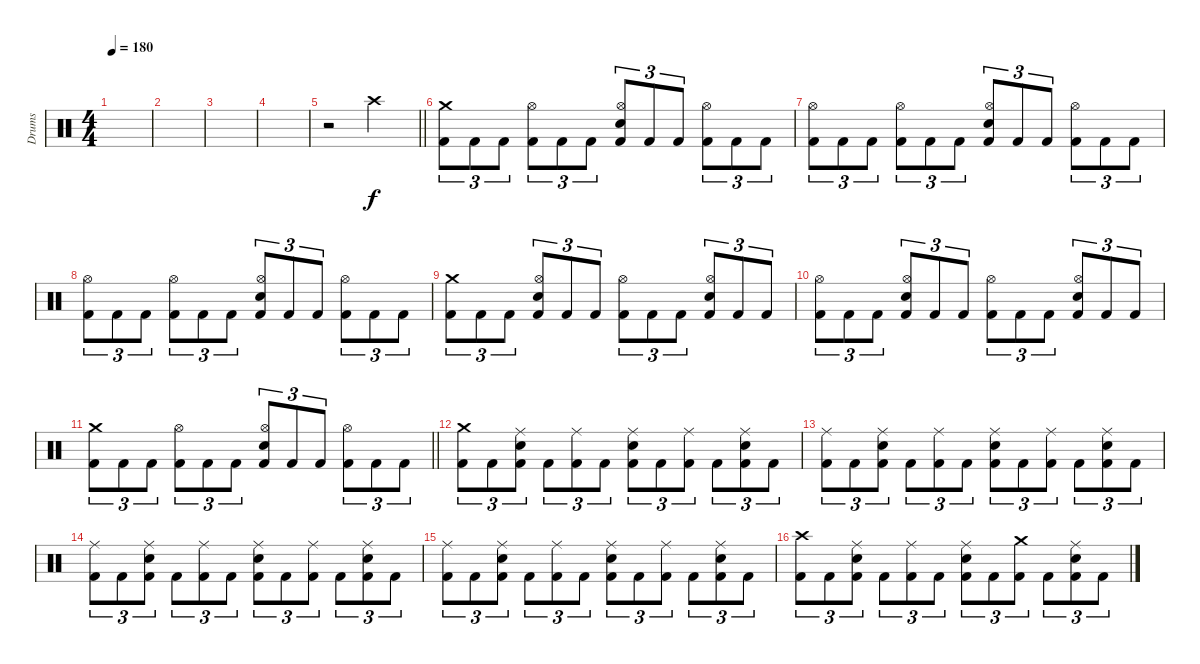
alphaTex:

\track ("Drums" "Drums") {instrument percussion}
\staff {score}
\articulation defaults
\ts (4 4)
\tempo 180
\clef neutral
\ks c
|
|
|
|
\barLineRight lightlight
r.2 "Crash high (hit)".2 |
\section ("" "")
("Crash medium (hit)" "Kick (hit) 2").8{tu (3 2)} "Kick (hit) 2".8{tu (3 2)} "Kick (hit) 2".8{tu (3 2)} ("Hi-Hat (open)" "Kick (hit) 2").8{tu (3 2)} "Kick (hit) 2".8{tu (3 2)} "Kick (hit) 2".8{tu (3 2)} ("Hi-Hat (open)" "Electric Snare (hit)" "Kick (hit) 2").8{tu (3 2)} "Kick (hit) 2".8{tu (3 2)} "Kick (hit) 2".8{tu (3 2)} ("Hi-Hat (open)" "Kick (hit) 2").8{tu (3 2)} "Kick (hit) 2".8{tu (3 2)} "Kick (hit) 2".8{tu (3 2)} |
("Hi-Hat (open)" "Kick (hit) 2").8{tu (3 2)} "Kick (hit) 2".8{tu (3 2)} "Kick (hit) 2".8{tu (3 2)} ("Hi-Hat (open)" "Kick (hit) 2").8{tu (3 2)} "Kick (hit) 2".8{tu (3 2)} "Kick (hit) 2".8{tu (3 2)} ("Hi-Hat (open)" "Electric Snare (hit)" "Kick (hit) 2").8{tu (3 2)} "Kick (hit) 2".8{tu (3 2)} "Kick (hit) 2".8{tu (3 2)} ("Hi-Hat (open)" "Kick (hit) 2").8{tu (3 2)} "Kick (hit) 2".8{tu (3 2)} "Kick (hit) 2".8{tu (3 2)} |
("Hi-Hat (open)" "Kick (hit) 2").8{tu (3 2)} "Kick (hit) 2".8{tu (3 2)} "Kick (hit) 2".8{tu (3 2)} ("Hi-Hat (open)" "Kick (hit) 2").8{tu (3 2)} "Kick (hit) 2".8{tu (3 2)} "Kick (hit) 2".8{tu (3 2)} ("Hi-Hat (open)" "Electric Snare (hit)" "Kick (hit) 2").8{tu (3 2)} "Kick (hit) 2".8{tu (3 2)} "Kick (hit) 2".8{tu (3 2)} ("Hi-Hat (open)" "Kick (hit) 2").8{tu (3 2)} "Kick (hit) 2".8{tu (3 2)} "Kick (hit) 2".8{tu (3 2)} |
("Crash medium (hit)" "Kick (hit) 2").8{tu (3 2)} "Kick (hit) 2".8{tu (3 2)} "Kick (hit) 2".8{tu (3 2)} ("Hi-Hat (open)" "Electric Snare (hit)" "Kick (hit) 2").8{tu (3 2)} "Kick (hit) 2".8{tu (3 2)} "Kick (hit) 2".8{tu (3 2)} ("Hi-Hat (open)" "Kick (hit) 2").8{tu (3 2)} "Kick (hit) 2".8{tu (3 2)} "Kick (hit) 2".8{tu (3 2)} ("Hi-Hat (open)" "Electric Snare (hit)" "Kick (hit) 2").8{tu (3 2)} "Kick (hit) 2".8{tu (3 2)} "Kick (hit) 2".8{tu (3 2)} |
("Hi-Hat (open)" "Kick (hit) 2").8{tu (3 2)} "Kick (hit) 2".8{tu (3 2)} "Kick (hit) 2".8{tu (3 2)} ("Hi-Hat (open)" "Electric Snare (hit)" "Kick (hit) 2").8{tu (3 2)} "Kick (hit) 2".8{tu (3 2)} "Kick (hit) 2".8{tu (3 2)} ("Hi-Hat (open)" "Kick (hit) 2").8{tu (3 2)} "Kick (hit) 2".8{tu (3 2)} "Kick (hit) 2".8{tu (3 2)} ("Hi-Hat (open)" "Electric Snare (hit)" "Kick (hit) 2").8{tu (3 2)} "Kick (hit) 2".8{tu (3 2)} "Kick (hit) 2".8{tu (3 2)} |
\barLineRight lightlight
("Crash medium (hit)" "Kick (hit) 2").8{tu (3 2)} "Kick (hit) 2".8{tu (3 2)} "Kick (hit) 2".8{tu (3 2)} ("Hi-Hat (open)" "Kick (hit) 2").8{tu (3 2)} "Kick (hit) 2".8{tu (3 2)} "Kick (hit) 2".8{tu (3 2)} ("Hi-Hat (open)" "Electric Snare (hit)" "Kick (hit) 2").8{tu (3 2)} "Kick (hit) 2".8{tu (3 2)} "Kick (hit) 2".8{tu (3 2)} ("Hi-Hat (open)" "Kick (hit) 2").8{tu (3 2)} "Kick (hit) 2".8{tu (3 2)} "Kick (hit) 2".8{tu (3 2)} |
("Crash medium (hit)" "Kick (hit) 2").8{tu (3 2)} "Kick (hit) 2".8{tu (3 2)} ("Ride (middle)" "Electric Snare (hit)" "Kick (hit) 2").8{tu (3 2)} "Kick (hit) 2".8{tu (3 2)} ("Ride (middle)" "Kick (hit) 2").8{tu (3 2)} "Kick (hit) 2".8{tu (3 2)} ("Ride (middle)" "Electric Snare (hit)" "Kick (hit) 2").8{tu (3 2)} "Kick (hit) 2".8{tu (3 2)} ("Ride (middle)" "Kick (hit) 2").8{tu (3 2)} "Kick (hit) 2".8{tu (3 2)} ("Ride (middle)" "Electric Snare (hit)" "Kick (hit) 2").8{tu (3 2)} "Kick (hit) 2".8{tu (3 2)} |
("Ride (middle)" "Kick (hit) 2").8{tu (3 2)} "Kick (hit) 2".8{tu (3 2)} ("Ride (middle)" "Electric Snare (hit)" "Kick (hit) 2").8{tu (3 2)} "Kick (hit) 2".8{tu (3 2)} ("Ride (middle)" "Kick (hit) 2").8{tu (3 2)} "Kick (hit) 2".8{tu (3 2)} ("Ride (middle)" "Electric Snare (hit)" "Kick (hit) 2").8{tu (3 2)} "Kick (hit) 2".8{tu (3 2)} ("Ride (middle)" "Kick (hit) 2").8{tu (3 2)} "Kick (hit) 2".8{tu (3 2)} ("Ride (middle)" "Electric Snare (hit)" "Kick (hit) 2").8{tu (3 2)} "Kick (hit) 2".8{tu (3 2)} |
("Ride (middle)" "Kick (hit) 2").8{tu (3 2)} "Kick (hit) 2".8{tu (3 2)} ("Ride (middle)" "Electric Snare (hit)" "Kick (hit) 2").8{tu (3 2)} "Kick (hit) 2".8{tu (3 2)} ("Ride (middle)" "Kick (hit) 2").8{tu (3 2)} "Kick (hit) 2".8{tu (3 2)} ("Ride (middle)" "Electric Snare (hit)" "Kick (hit) 2").8{tu (3 2)} "Kick (hit) 2".8{tu (3 2)} ("Ride (middle)" "Kick (hit) 2").8{tu (3 2)} "Kick (hit) 2".8{tu (3 2)} ("Ride (middle)" "Electric Snare (hit)" "Kick (hit) 2").8{tu (3 2)} "Kick (hit) 2".8{tu (3 2)} |
("Ride (middle)" "Kick (hit) 2").8{tu (3 2)} "Kick (hit) 2".8{tu (3 2)} ("Ride (middle)" "Electric Snare (hit)" "Kick (hit) 2").8{tu (3 2)} "Kick (hit) 2".8{tu (3 2)} ("Ride (middle)" "Kick (hit) 2").8{tu (3 2)} "Kick (hit) 2".8{tu (3 2)} ("Ride (middle)" "Electric Snare (hit)" "Kick (hit) 2").8{tu (3 2)} "Kick (hit) 2".8{tu (3 2)} ("Ride (middle)" "Kick (hit) 2").8{tu (3 2)} "Kick (hit) 2".8{tu (3 2)} ("Ride (middle)" "Electric Snare (hit)" "Kick (hit) 2").8{tu (3 2)} "Kick (hit) 2".8{tu (3 2)} |
("Crash high (hit)" "Kick (hit) 2").8{tu (3 2)} "Kick (hit) 2".8{tu (3 2)} ("Ride (middle)" "Electric Snare (hit)" "Kick (hit) 2").8{tu (3 2)} "Kick (hit) 2".8{tu (3 2)} ("Ride (middle)" "Kick (hit) 2").8{tu (3 2)} "Kick (hit) 2".8{tu (3 2)} ("Ride (middle)" "Electric Snare (hit)" "Kick (hit) 2").8{tu (3 2)} "Kick (hit) 2".8{tu (3 2)} ("Crash medium (hit)" "Kick (hit) 2").8{tu (3 2)} "Kick (hit) 2".8{tu (3 2)} ("Ride (middle)" "Electric Snare (hit)" "Kick (hit) 2").8{tu (3 2)} "Kick (hit) 2".8{tu (3 2)}
